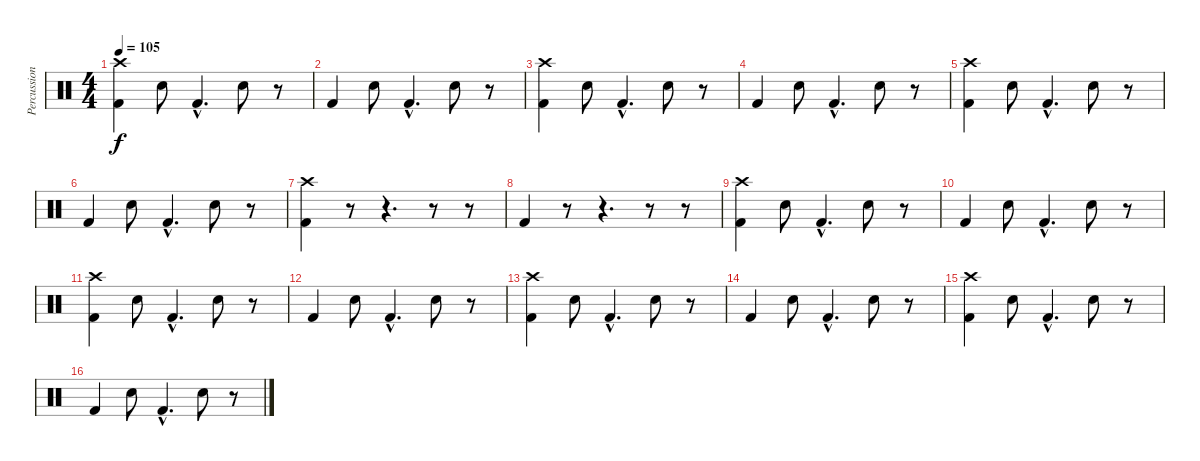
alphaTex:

\track ("Percussion" "Percussion") {instrument percussion}
\staff {score}
\articulation defaults
\ts (4 4)
\tempo 105
\clef neutral
\ks c
("Crash high (hit)" "Kick (hit) 2").4{dy f} "Hand Clap (hit)".8 "Kick (hit) 2"{hac}.4{d} "Hand Clap (hit)".8 r.8 |
"Kick (hit) 2".4 "Hand Clap (hit)".8 "Kick (hit) 2"{hac}.4{d} "Hand Clap (hit)".8 r.8 |
("Crash high (hit)" "Kick (hit) 2").4 "Hand Clap (hit)".8 "Kick (hit) 2"{hac}.4{d} "Hand Clap (hit)".8 r.8 |
"Kick (hit) 2".4 "Hand Clap (hit)".8 "Kick (hit) 2"{hac}.4{d} "Hand Clap (hit)".8 r.8 |
("Crash high (hit)" "Kick (hit) 2").4 "Hand Clap (hit)".8 "Kick (hit) 2"{hac}.4{d} "Hand Clap (hit)".8 r.8 |
"Kick (hit) 2".4 "Hand Clap (hit)".8 "Kick (hit) 2"{hac}.4{d} "Hand Clap (hit)".8 r.8 |
("Crash high (hit)" "Kick (hit) 2").4 r.8 r.4{d} r.8 r.8 |
"Kick (hit) 2".4 r.8 r.4{d} r.8 r.8 |
("Crash high (hit)" "Kick (hit) 2").4 "Hand Clap (hit)".8 "Kick (hit) 2"{hac}.4{d} "Hand Clap (hit)".8 r.8 |
"Kick (hit) 2".4 "Hand Clap (hit)".8 "Kick (hit) 2"{hac}.4{d} "Hand Clap (hit)".8 r.8 |
("Crash high (hit)" "Kick (hit) 2").4 "Hand Clap (hit)".8 "Kick (hit) 2"{hac}.4{d} "Hand Clap (hit)".8 r.8 |
"Kick (hit) 2".4 "Hand Clap (hit)".8 "Kick (hit) 2"{hac}.4{d} "Hand Clap (hit)".8 r.8 |
("Crash high (hit)" "Kick (hit) 2").4 "Hand Clap (hit)".8 "Kick (hit) 2"{hac}.4{d} "Hand Clap (hit)".8 r.8 |
"Kick (hit) 2".4 "Hand Clap (hit)".8 "Kick (hit) 2"{hac}.4{d} "Hand Clap (hit)".8 r.8 |
("Crash high (hit)" "Kick (hit) 2").4 "Hand Clap (hit)".8 "Kick (hit) 2"{hac}.4{d} "Hand Clap (hit)".8 r.8 |
"Kick (hit) 2".4 "Hand Clap (hit)".8 "Kick (hit) 2"{hac}.4{d} "Hand Clap (hit)".8 r.8
